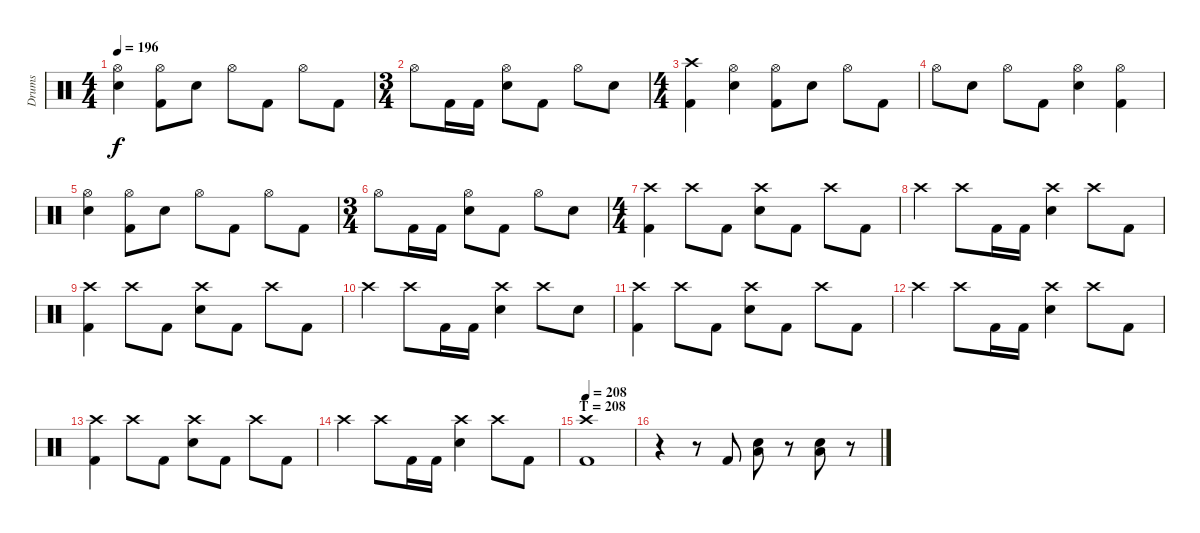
\track ("Drums" "Drums") {instrument percussion}
\staff {score}
\articulation defaults
\ts (4 4)
\tempo 196
\clef neutral
\ks c
("Hi-Hat (open)" "Electric Snare (hit)").4{dy f} ("Hi-Hat (open)" "Kick (hit) 2").8 "Electric Snare (hit)".8 "Hi-Hat (open)".8 "Kick (hit) 2".8 "Hi-Hat (open)".8 "Kick (hit) 2".8 |
\ts (3 4)
"Hi-Hat (open)".8 "Kick (hit) 2".16 "Kick (hit) 2".16 ("Hi-Hat (open)" "Electric Snare (hit)").8 "Kick (hit) 2".8 "Hi-Hat (open)".8 "Electric Snare (hit)".8 |
\ts (4 4)
("Crash high (hit)" "Kick (hit) 2").4 ("Hi-Hat (open)" "Electric Snare (hit)").4 ("Hi-Hat (open)" "Kick (hit) 2").8 "Electric Snare (hit)".8 "Hi-Hat (open)".8 "Kick (hit) 2".8 |
"Hi-Hat (open)".8 "Electric Snare (hit)".8 "Hi-Hat (open)".8 "Kick (hit) 2".8 ("Hi-Hat (open)" "Electric Snare (hit)").4 ("Hi-Hat (open)" "Kick (hit) 2").4 |
("Hi-Hat (open)" "Electric Snare (hit)").4 ("Hi-Hat (open)" "Kick (hit) 2").8 "Electric Snare (hit)".8 "Hi-Hat (open)".8 "Kick (hit) 2".8 "Hi-Hat (open)".8 "Kick (hit) 2".8 |
\ts (3 4)
"Hi-Hat (open)".8 "Kick (hit) 2".16 "Kick (hit) 2".16 ("Hi-Hat (open)" "Electric Snare (hit)").8 "Kick (hit) 2".8 "Hi-Hat (open)".8 "Electric Snare (hit)".8 |
\ts (4 4)
\section ("" "")
("Crash high (hit)" "Kick (hit) 2").4 "Crash high (hit)".8 "Kick (hit) 2".8 ("Crash high (hit)" "Electric Snare (hit)").8 "Kick (hit) 2".8 "Crash high (hit)".8 "Kick (hit) 2".8 |
"Crash high (hit)".4 "Crash high (hit)".8 "Kick (hit) 2".16 "Kick (hit) 2".16 ("Crash high (hit)" "Electric Snare (hit)").4 "Crash high (hit)".8 "Kick (hit) 2".8 |
("Crash high (hit)" "Kick (hit) 2").4 "Crash high (hit)".8 "Kick (hit) 2".8 ("Crash high (hit)" "Electric Snare (hit)").8 "Kick (hit) 2".8 "Crash high (hit)".8 "Kick (hit) 2".8 |
"Crash high (hit)".4 "Crash high (hit)".8 "Kick (hit) 2".16 "Kick (hit) 2".16 ("Crash high (hit)" "Electric Snare (hit)").4 "Crash high (hit)".8 "Electric Snare (hit)".8 |
("Crash high (hit)" "Kick (hit) 2").4 "Crash high (hit)".8 "Kick (hit) 2".8 ("Crash high (hit)" "Electric Snare (hit)").8 "Kick (hit) 2".8 "Crash high (hit)".8 "Kick (hit) 2".8 |
"Crash high (hit)".4 "Crash high (hit)".8 "Kick (hit) 2".16 "Kick (hit) 2".16 ("Crash high (hit)" "Electric Snare (hit)").4 "Crash high (hit)".8 "Kick (hit) 2".8 |
("Crash high (hit)" "Kick (hit) 2").4 "Crash high (hit)".8 "Kick (hit) 2".8 ("Crash high (hit)" "Electric Snare (hit)").8 "Kick (hit) 2".8 "Crash high (hit)".8 "Kick (hit) 2".8 |
"Crash high (hit)".4 "Crash high (hit)".8 "Kick (hit) 2".16 "Kick (hit) 2".16 ("Crash high (hit)" "Electric Snare (hit)").4 "Crash high (hit)".8 "Kick (hit) 2".8 |
\section ("" "T = 208")
\tempo 208
("Crash high (hit)" "Kick (hit) 2").1 |
r.4 r.8 "Kick (hit) 2".8 ("Low Tom (hit)" "Electric Snare (hit)").8 r.8 ("Low Tom (hit)" "Electric Snare (hit)").8 r.8
